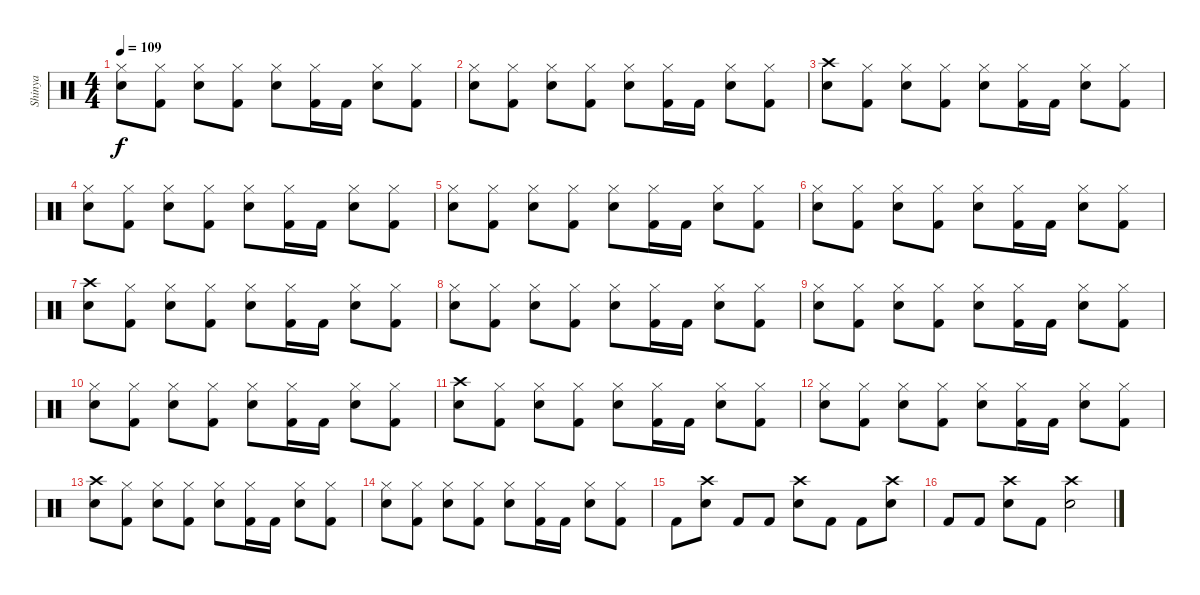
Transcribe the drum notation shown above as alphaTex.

\track ("Shinya" "Shinya") {instrument percussion}
\staff {score}
\articulation defaults
\ts (4 4)
\tempo 109
\clef neutral
\ks c
("Hi-Hat (closed)" "Snare (hit) 2").8{dy f} ("Hi-Hat (closed)" "Kick (hit) 2").8 ("Hi-Hat (closed)" "Snare (hit) 2").8 ("Hi-Hat (closed)" "Kick (hit) 2").8 ("Hi-Hat (closed)" "Snare (hit) 2").8 ("Hi-Hat (closed)" "Kick (hit) 2").16 "Kick (hit) 2".16 ("Hi-Hat (closed)" "Snare (hit) 2").8 ("Hi-Hat (closed)" "Kick (hit) 2").8 |
("Hi-Hat (closed)" "Snare (hit) 2").8 ("Hi-Hat (closed)" "Kick (hit) 2").8 ("Hi-Hat (closed)" "Snare (hit) 2").8 ("Hi-Hat (closed)" "Kick (hit) 2").8 ("Hi-Hat (closed)" "Snare (hit) 2").8 ("Hi-Hat (closed)" "Kick (hit) 2").16 "Kick (hit) 2".16 ("Hi-Hat (closed)" "Snare (hit) 2").8 ("Hi-Hat (closed)" "Kick (hit) 2").8 |
("Crash high (hit)" "Snare (hit) 2").8 ("Hi-Hat (closed)" "Kick (hit) 2").8 ("Hi-Hat (closed)" "Snare (hit) 2").8 ("Hi-Hat (closed)" "Kick (hit) 2").8 ("Hi-Hat (closed)" "Snare (hit) 2").8 ("Hi-Hat (closed)" "Kick (hit) 2").16 "Kick (hit) 2".16 ("Hi-Hat (closed)" "Snare (hit) 2").8 ("Hi-Hat (closed)" "Kick (hit) 2").8 |
("Hi-Hat (closed)" "Snare (hit) 2").8 ("Hi-Hat (closed)" "Kick (hit) 2").8 ("Hi-Hat (closed)" "Snare (hit) 2").8 ("Hi-Hat (closed)" "Kick (hit) 2").8 ("Hi-Hat (closed)" "Snare (hit) 2").8 ("Hi-Hat (closed)" "Kick (hit) 2").16 "Kick (hit) 2".16 ("Hi-Hat (closed)" "Snare (hit) 2").8 ("Hi-Hat (closed)" "Kick (hit) 2").8 |
("Hi-Hat (closed)" "Snare (hit) 2").8 ("Hi-Hat (closed)" "Kick (hit) 2").8 ("Hi-Hat (closed)" "Snare (hit) 2").8 ("Hi-Hat (closed)" "Kick (hit) 2").8 ("Hi-Hat (closed)" "Snare (hit) 2").8 ("Hi-Hat (closed)" "Kick (hit) 2").16 "Kick (hit) 2".16 ("Hi-Hat (closed)" "Snare (hit) 2").8 ("Hi-Hat (closed)" "Kick (hit) 2").8 |
("Hi-Hat (closed)" "Snare (hit) 2").8 ("Hi-Hat (closed)" "Kick (hit) 2").8 ("Hi-Hat (closed)" "Snare (hit) 2").8 ("Hi-Hat (closed)" "Kick (hit) 2").8 ("Hi-Hat (closed)" "Snare (hit) 2").8 ("Hi-Hat (closed)" "Kick (hit) 2").16 "Kick (hit) 2".16 ("Hi-Hat (closed)" "Snare (hit) 2").8 ("Hi-Hat (closed)" "Kick (hit) 2").8 |
("Crash high (hit)" "Snare (hit) 2").8 ("Hi-Hat (closed)" "Kick (hit) 2").8 ("Hi-Hat (closed)" "Snare (hit) 2").8 ("Hi-Hat (closed)" "Kick (hit) 2").8 ("Hi-Hat (closed)" "Snare (hit) 2").8 ("Hi-Hat (closed)" "Kick (hit) 2").16 "Kick (hit) 2".16 ("Hi-Hat (closed)" "Snare (hit) 2").8 ("Hi-Hat (closed)" "Kick (hit) 2").8 |
("Hi-Hat (closed)" "Snare (hit) 2").8 ("Hi-Hat (closed)" "Kick (hit) 2").8 ("Hi-Hat (closed)" "Snare (hit) 2").8 ("Hi-Hat (closed)" "Kick (hit) 2").8 ("Hi-Hat (closed)" "Snare (hit) 2").8 ("Hi-Hat (closed)" "Kick (hit) 2").16 "Kick (hit) 2".16 ("Hi-Hat (closed)" "Snare (hit) 2").8 ("Hi-Hat (closed)" "Kick (hit) 2").8 |
("Hi-Hat (closed)" "Snare (hit) 2").8 ("Hi-Hat (closed)" "Kick (hit) 2").8 ("Hi-Hat (closed)" "Snare (hit) 2").8 ("Hi-Hat (closed)" "Kick (hit) 2").8 ("Hi-Hat (closed)" "Snare (hit) 2").8 ("Hi-Hat (closed)" "Kick (hit) 2").16 "Kick (hit) 2".16 ("Hi-Hat (closed)" "Snare (hit) 2").8 ("Hi-Hat (closed)" "Kick (hit) 2").8 |
("Hi-Hat (closed)" "Snare (hit) 2").8 ("Hi-Hat (closed)" "Kick (hit) 2").8 ("Hi-Hat (closed)" "Snare (hit) 2").8 ("Hi-Hat (closed)" "Kick (hit) 2").8 ("Hi-Hat (closed)" "Snare (hit) 2").8 ("Hi-Hat (closed)" "Kick (hit) 2").16 "Kick (hit) 2".16 ("Hi-Hat (closed)" "Snare (hit) 2").8 ("Hi-Hat (closed)" "Kick (hit) 2").8 |
("Crash high (hit)" "Snare (hit) 2").8 ("Hi-Hat (closed)" "Kick (hit) 2").8 ("Hi-Hat (closed)" "Snare (hit) 2").8 ("Hi-Hat (closed)" "Kick (hit) 2").8 ("Hi-Hat (closed)" "Snare (hit) 2").8 ("Hi-Hat (closed)" "Kick (hit) 2").16 "Kick (hit) 2".16 ("Hi-Hat (closed)" "Snare (hit) 2").8 ("Hi-Hat (closed)" "Kick (hit) 2").8 |
("Hi-Hat (closed)" "Snare (hit) 2").8 ("Hi-Hat (closed)" "Kick (hit) 2").8 ("Hi-Hat (closed)" "Snare (hit) 2").8 ("Hi-Hat (closed)" "Kick (hit) 2").8 ("Hi-Hat (closed)" "Snare (hit) 2").8 ("Hi-Hat (closed)" "Kick (hit) 2").16 "Kick (hit) 2".16 ("Hi-Hat (closed)" "Snare (hit) 2").8 ("Hi-Hat (closed)" "Kick (hit) 2").8 |
("Crash high (hit)" "Snare (hit) 2").8 ("Hi-Hat (closed)" "Kick (hit) 2").8 ("Hi-Hat (closed)" "Snare (hit) 2").8 ("Hi-Hat (closed)" "Kick (hit) 2").8 ("Hi-Hat (closed)" "Snare (hit) 2").8 ("Hi-Hat (closed)" "Kick (hit) 2").16 "Kick (hit) 2".16 ("Hi-Hat (closed)" "Snare (hit) 2").8 ("Hi-Hat (closed)" "Kick (hit) 2").8 |
("Hi-Hat (closed)" "Snare (hit) 2").8 ("Hi-Hat (closed)" "Kick (hit) 2").8 ("Hi-Hat (closed)" "Snare (hit) 2").8 ("Hi-Hat (closed)" "Kick (hit) 2").8 ("Hi-Hat (closed)" "Snare (hit) 2").8 ("Hi-Hat (closed)" "Kick (hit) 2").16 "Kick (hit) 2".16 ("Hi-Hat (closed)" "Snare (hit) 2").8 ("Hi-Hat (closed)" "Kick (hit) 2").8 |
"Kick (hit) 2".8 ("Crash high (hit)" "Snare (hit) 2").8 "Kick (hit) 2".8 "Kick (hit) 2".8 ("Crash high (hit)" "Snare (hit) 2").8 "Kick (hit) 2".8 "Kick (hit) 2".8 ("Crash high (hit)" "Snare (hit) 2").8 |
"Kick (hit) 2".8 "Kick (hit) 2".8 ("Crash high (hit)" "Snare (hit) 2").8 "Kick (hit) 2".8 ("Crash high (hit)" "Snare (hit) 2").2
